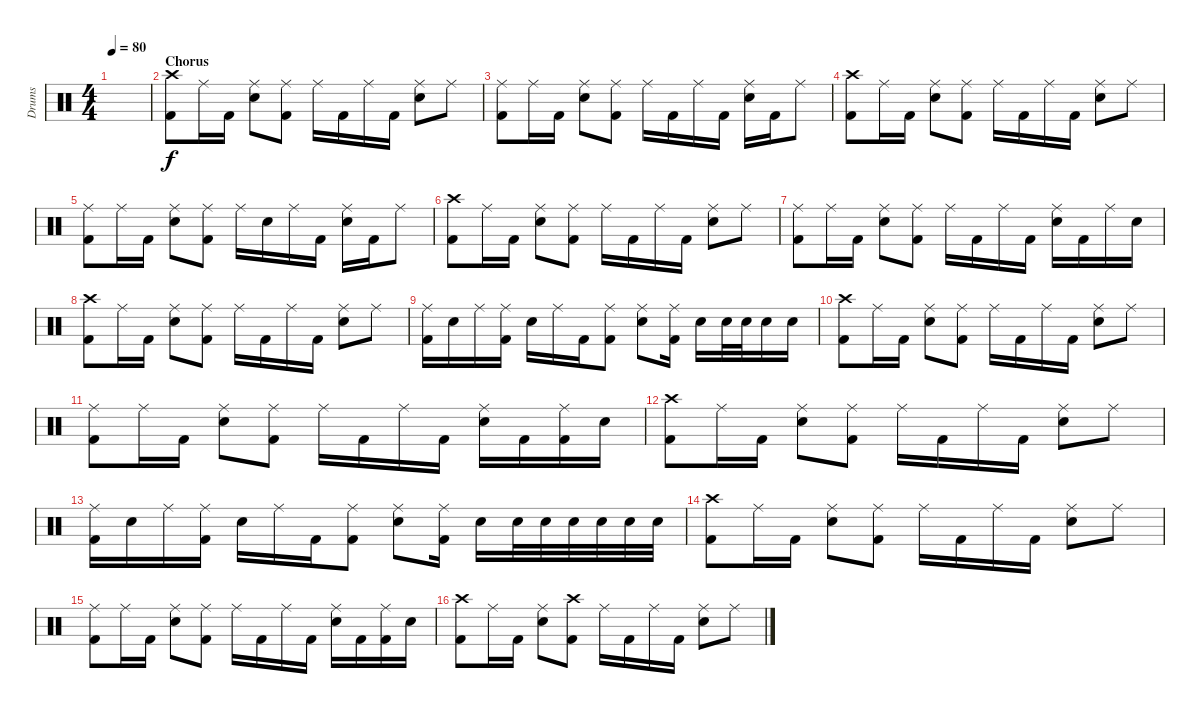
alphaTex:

\track ("Drums" "Drums") {instrument percussion}
\staff {score}
\articulation defaults
\ts (4 4)
\tempo 80
\clef neutral
\ks c
|
\section ("" "Chorus")
("Crash high (hit)" "Kick (hit) 2").8 "Ride (middle)".16 "Kick (hit) 2".16 ("Ride (middle)" "Snare (hit) 2").8 ("Ride (middle)" "Kick (hit) 2").8 "Ride (middle)".16 "Kick (hit) 2".16 "Ride (middle)".16 "Kick (hit) 2".16 ("Ride (middle)" "Snare (hit) 2").8 "Ride (middle)".8 |
("Ride (middle)" "Kick (hit) 2").8 "Ride (middle)".16 "Kick (hit) 2".16 ("Ride (middle)" "Snare (hit) 2").8 ("Ride (middle)" "Kick (hit) 2").8 "Ride (middle)".16 "Kick (hit) 2".16 "Ride (middle)".16 "Kick (hit) 2".16 ("Ride (middle)" "Snare (hit) 2").16 "Kick (hit) 2".16 "Ride (middle)".8 |
("Crash high (hit)" "Kick (hit) 2").8 "Ride (middle)".16 "Kick (hit) 2".16 ("Ride (middle)" "Snare (hit) 2").8 ("Ride (middle)" "Kick (hit) 2").8 "Ride (middle)".16 "Kick (hit) 2".16 "Ride (middle)".16 "Kick (hit) 2".16 ("Ride (middle)" "Snare (hit) 2").8 "Ride (middle)".8 |
("Ride (middle)" "Kick (hit) 2").8 "Ride (middle)".16 "Kick (hit) 2".16 ("Ride (middle)" "Snare (hit) 2").8 ("Ride (middle)" "Kick (hit) 2").8 "Ride (middle)".16 "Snare (hit) 2".16 "Ride (middle)".16 "Kick (hit) 2".16 ("Ride (middle)" "Snare (hit) 2").16 "Kick (hit) 2".16 "Ride (middle)".8 |
("Crash high (hit)" "Kick (hit) 2").8 "Ride (middle)".16 "Kick (hit) 2".16 ("Ride (middle)" "Snare (hit) 2").8 ("Ride (middle)" "Kick (hit) 2").8 "Ride (middle)".16 "Kick (hit) 2".16 "Ride (middle)".16 "Kick (hit) 2".16 ("Ride (middle)" "Snare (hit) 2").8 "Ride (middle)".8 |
("Ride (middle)" "Kick (hit) 2").8 "Ride (middle)".16 "Kick (hit) 2".16 ("Ride (middle)" "Snare (hit) 2").8 ("Ride (middle)" "Kick (hit) 2").8 "Ride (middle)".16 "Kick (hit) 2".16 "Ride (middle)".16 "Kick (hit) 2".16 ("Ride (middle)" "Snare (hit) 2").16 "Kick (hit) 2".16 "Ride (middle)".16 "Snare (hit) 2".16 |
("Crash high (hit)" "Kick (hit) 2").8 "Ride (middle)".16 "Kick (hit) 2".16 ("Ride (middle)" "Snare (hit) 2").8 ("Ride (middle)" "Kick (hit) 2").8 "Ride (middle)".16 "Kick (hit) 2".16 "Ride (middle)".16 "Kick (hit) 2".16 ("Ride (middle)" "Snare (hit) 2").8 "Ride (middle)".8 |
("Ride (middle)" "Kick (hit) 2").16 "Snare (hit) 2".16 "Ride (middle)".16 ("Ride (middle)" "Kick (hit) 2").16 "Snare (hit) 2".16 "Ride (middle)".16 "Kick (hit) 2".16 ("Ride (middle)" "Kick (hit) 2").8 ("Ride (middle)" "Snare (hit) 2").8 ("Ride (middle)" "Kick (hit) 2").16 "Snare (hit) 2".16 "Snare (hit) 2".32 "Snare (hit) 2".32 "Snare (hit) 2".16 "Snare (hit) 2".16 |
("Crash high (hit)" "Kick (hit) 2").8 "Ride (middle)".16 "Kick (hit) 2".16 ("Ride (middle)" "Snare (hit) 2").8 ("Ride (middle)" "Kick (hit) 2").8 "Ride (middle)".16 "Kick (hit) 2".16 "Ride (middle)".16 "Kick (hit) 2".16 ("Ride (middle)" "Snare (hit) 2").8 "Ride (middle)".8 |
("Ride (middle)" "Kick (hit) 2").8 "Ride (middle)".16 "Kick (hit) 2".16 ("Ride (middle)" "Snare (hit) 2").8 ("Ride (middle)" "Kick (hit) 2").8 "Ride (middle)".16 "Kick (hit) 2".16 "Ride (middle)".16 "Kick (hit) 2".16 ("Ride (middle)" "Snare (hit) 2").16 "Kick (hit) 2".16 ("Ride (middle)" "Kick (hit) 2").16 "Snare (hit) 2".16 |
("Crash high (hit)" "Kick (hit) 2").8 "Ride (middle)".16 "Kick (hit) 2".16 ("Ride (middle)" "Snare (hit) 2").8 ("Ride (middle)" "Kick (hit) 2").8 "Ride (middle)".16 "Kick (hit) 2".16 "Ride (middle)".16 "Kick (hit) 2".16 ("Ride (middle)" "Snare (hit) 2").8 "Ride (middle)".8 |
("Ride (middle)" "Kick (hit) 2").16 "Snare (hit) 2".16 "Ride (middle)".16 ("Ride (middle)" "Kick (hit) 2").16 "Snare (hit) 2".16 "Ride (middle)".16 "Kick (hit) 2".16 ("Ride (middle)" "Kick (hit) 2").8 ("Ride (middle)" "Snare (hit) 2").8 ("Ride (middle)" "Kick (hit) 2").16 "Snare (hit) 2".16 "Snare (hit) 2".32 "Snare (hit) 2".32 "Snare (hit) 2".32 "Snare (hit) 2".32 "Snare (hit) 2".32 "Snare (hit) 2".32 |
("Crash high (hit)" "Kick (hit) 2").8 "Ride (middle)".16 "Kick (hit) 2".16 ("Ride (middle)" "Snare (hit) 2").8 ("Ride (middle)" "Kick (hit) 2").8 "Ride (middle)".16 "Kick (hit) 2".16 "Ride (middle)".16 "Kick (hit) 2".16 ("Ride (middle)" "Snare (hit) 2").8 "Ride (middle)".8 |
("Ride (middle)" "Kick (hit) 2").8 "Ride (middle)".16 "Kick (hit) 2".16 ("Ride (middle)" "Snare (hit) 2").8 ("Ride (middle)" "Kick (hit) 2").8 "Ride (middle)".16 "Kick (hit) 2".16 "Ride (middle)".16 "Kick (hit) 2".16 ("Ride (middle)" "Snare (hit) 2").16 "Kick (hit) 2".16 ("Ride (middle)" "Kick (hit) 2").16 "Snare (hit) 2".16 |
("Crash high (hit)" "Kick (hit) 2").8 "Ride (middle)".16 "Kick (hit) 2".16 ("Ride (middle)" "Snare (hit) 2").8 ("Crash high (hit)" "Kick (hit) 2").8 "Ride (middle)".16 "Kick (hit) 2".16 "Ride (middle)".16 "Kick (hit) 2".16 ("Ride (middle)" "Snare (hit) 2").8 "Ride (middle)".8
